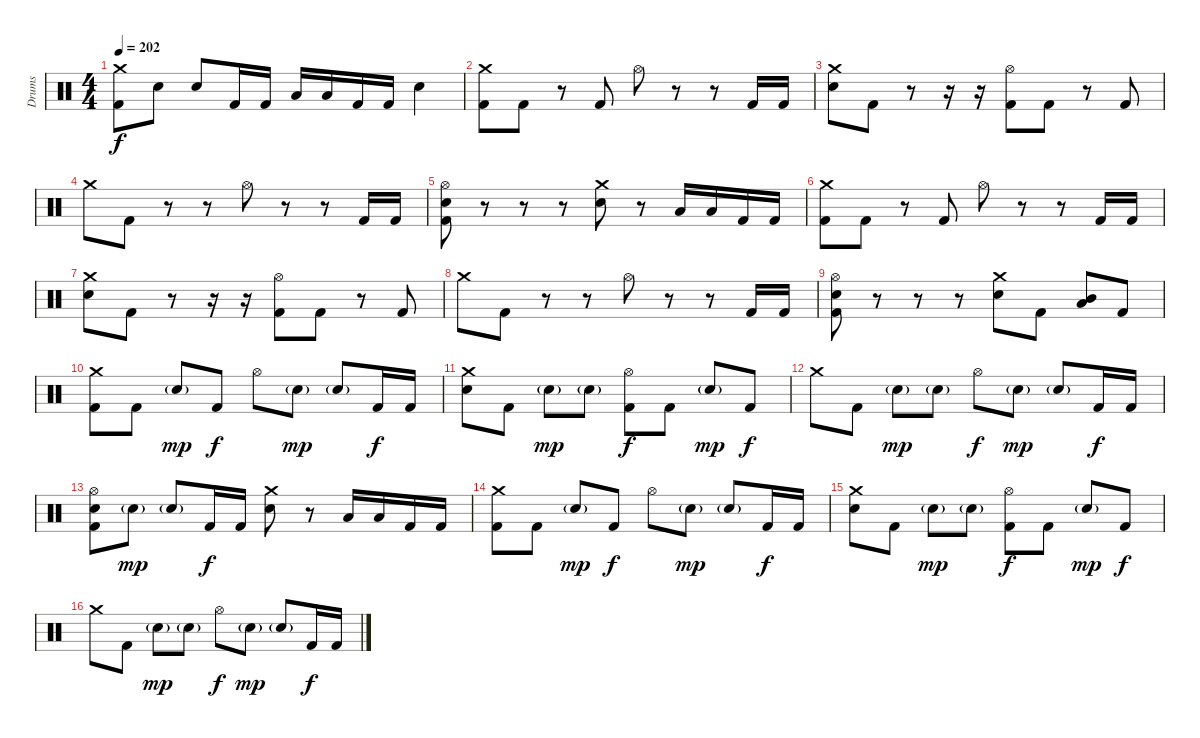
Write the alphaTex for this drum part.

\track ("Drums" "Drums") {instrument percussion}
\staff {score}
\articulation defaults
\ts (4 4)
\tempo 202
\clef neutral
\ks c
("Crash medium (hit)" "Kick (hit) 2").8{dy f} "Electric Snare (hit)".8 "Electric Snare (hit)".8 "Kick (hit) 2".16 "Kick (hit) 2".16 "Low Tom (hit)".16 "Low Tom (hit)".16 "Kick (hit) 2".16 "Kick (hit) 2".16 "Electric Snare (hit)".4 |
("Crash medium (hit)" "Kick (hit) 2").8 "Kick (hit) 2".8 r.8 "Kick (hit) 2".8 "Hi-Hat (open)".8 r.8 r.8 "Kick (hit) 2".16 "Kick (hit) 2".16 |
("Crash medium (hit)" "Electric Snare (hit)").8 "Kick (hit) 2".8 r.8 r.16 r.16 ("Hi-Hat (open)" "Kick (hit) 2").8 "Kick (hit) 2".8 r.8 "Kick (hit) 2".8 |
"Crash medium (hit)".8 "Kick (hit) 2".8 r.8 r.8 "Hi-Hat (open)".8 r.8 r.8 "Kick (hit) 2".16 "Kick (hit) 2".16 |
("Hi-Hat (open)" "Electric Snare (hit)" "Kick (hit) 2").8 r.8 r.8 r.8 ("Crash medium (hit)" "Electric Snare (hit)").8 r.8 "Low Tom (hit)".16 "Low Tom (hit)".16 "Kick (hit) 2".16 "Kick (hit) 2".16 |
("Crash medium (hit)" "Kick (hit) 2").8 "Kick (hit) 2".8 r.8 "Kick (hit) 2".8 "Hi-Hat (open)".8 r.8 r.8 "Kick (hit) 2".16 "Kick (hit) 2".16 |
("Crash medium (hit)" "Electric Snare (hit)").8 "Kick (hit) 2".8 r.8 r.16 r.16 ("Hi-Hat (open)" "Kick (hit) 2").8 "Kick (hit) 2".8 r.8 "Kick (hit) 2".8 |
"Crash medium (hit)".8 "Kick (hit) 2".8 r.8 r.8 "Hi-Hat (open)".8 r.8 r.8 "Kick (hit) 2".16 "Kick (hit) 2".16 |
("Hi-Hat (open)" "Electric Snare (hit)" "Kick (hit) 2").8 r.8 r.8 r.8 ("Crash medium (hit)" "Electric Snare (hit)").8 "Kick (hit) 2".8 ("Mid Tom (hit)" "Low Tom (hit)").8 "Kick (hit) 2".8 |
("Crash medium (hit)" "Kick (hit) 2").8 "Kick (hit) 2".8 "Snare (hit) 2"{g}.8{dy mp} "Kick (hit) 2".8{dy f} "Hi-Hat (open)".8 "Snare (hit) 2"{g}.8{dy mp} "Snare (hit) 2"{g}.8 "Kick (hit) 2".16{dy f} "Kick (hit) 2".16 |
("Crash medium (hit)" "Electric Snare (hit)").8 "Kick (hit) 2".8 "Snare (hit) 2"{g}.8{dy mp} "Snare (hit) 2"{g}.8 ("Hi-Hat (open)" "Kick (hit) 2").8{dy f} "Kick (hit) 2".8 "Snare (hit) 2"{g}.8{dy mp} "Kick (hit) 2".8{dy f} |
"Crash medium (hit)".8 "Kick (hit) 2".8 "Snare (hit) 2"{g}.8{dy mp} "Snare (hit) 2"{g}.8 "Hi-Hat (open)".8{dy f} "Snare (hit) 2"{g}.8{dy mp} "Snare (hit) 2"{g}.8 "Kick (hit) 2".16{dy f} "Kick (hit) 2".16 |
("Hi-Hat (open)" "Electric Snare (hit)" "Kick (hit) 2").8 "Snare (hit) 2"{g}.8{dy mp} "Snare (hit) 2"{g}.8 "Kick (hit) 2".16{dy f} "Kick (hit) 2".16 ("Crash medium (hit)" "Electric Snare (hit)").8 r.8 "Low Tom (hit)".16 "Low Tom (hit)".16 "Kick (hit) 2".16 "Kick (hit) 2".16 |
("Crash medium (hit)" "Kick (hit) 2").8 "Kick (hit) 2".8 "Snare (hit) 2"{g}.8{dy mp} "Kick (hit) 2".8{dy f} "Hi-Hat (open)".8 "Snare (hit) 2"{g}.8{dy mp} "Snare (hit) 2"{g}.8 "Kick (hit) 2".16{dy f} "Kick (hit) 2".16 |
("Crash medium (hit)" "Electric Snare (hit)").8 "Kick (hit) 2".8 "Snare (hit) 2"{g}.8{dy mp} "Snare (hit) 2"{g}.8 ("Hi-Hat (open)" "Kick (hit) 2").8{dy f} "Kick (hit) 2".8 "Snare (hit) 2"{g}.8{dy mp} "Kick (hit) 2".8{dy f} |
"Crash medium (hit)".8 "Kick (hit) 2".8 "Snare (hit) 2"{g}.8{dy mp} "Snare (hit) 2"{g}.8 "Hi-Hat (open)".8{dy f} "Snare (hit) 2"{g}.8{dy mp} "Snare (hit) 2"{g}.8 "Kick (hit) 2".16{dy f} "Kick (hit) 2".16
